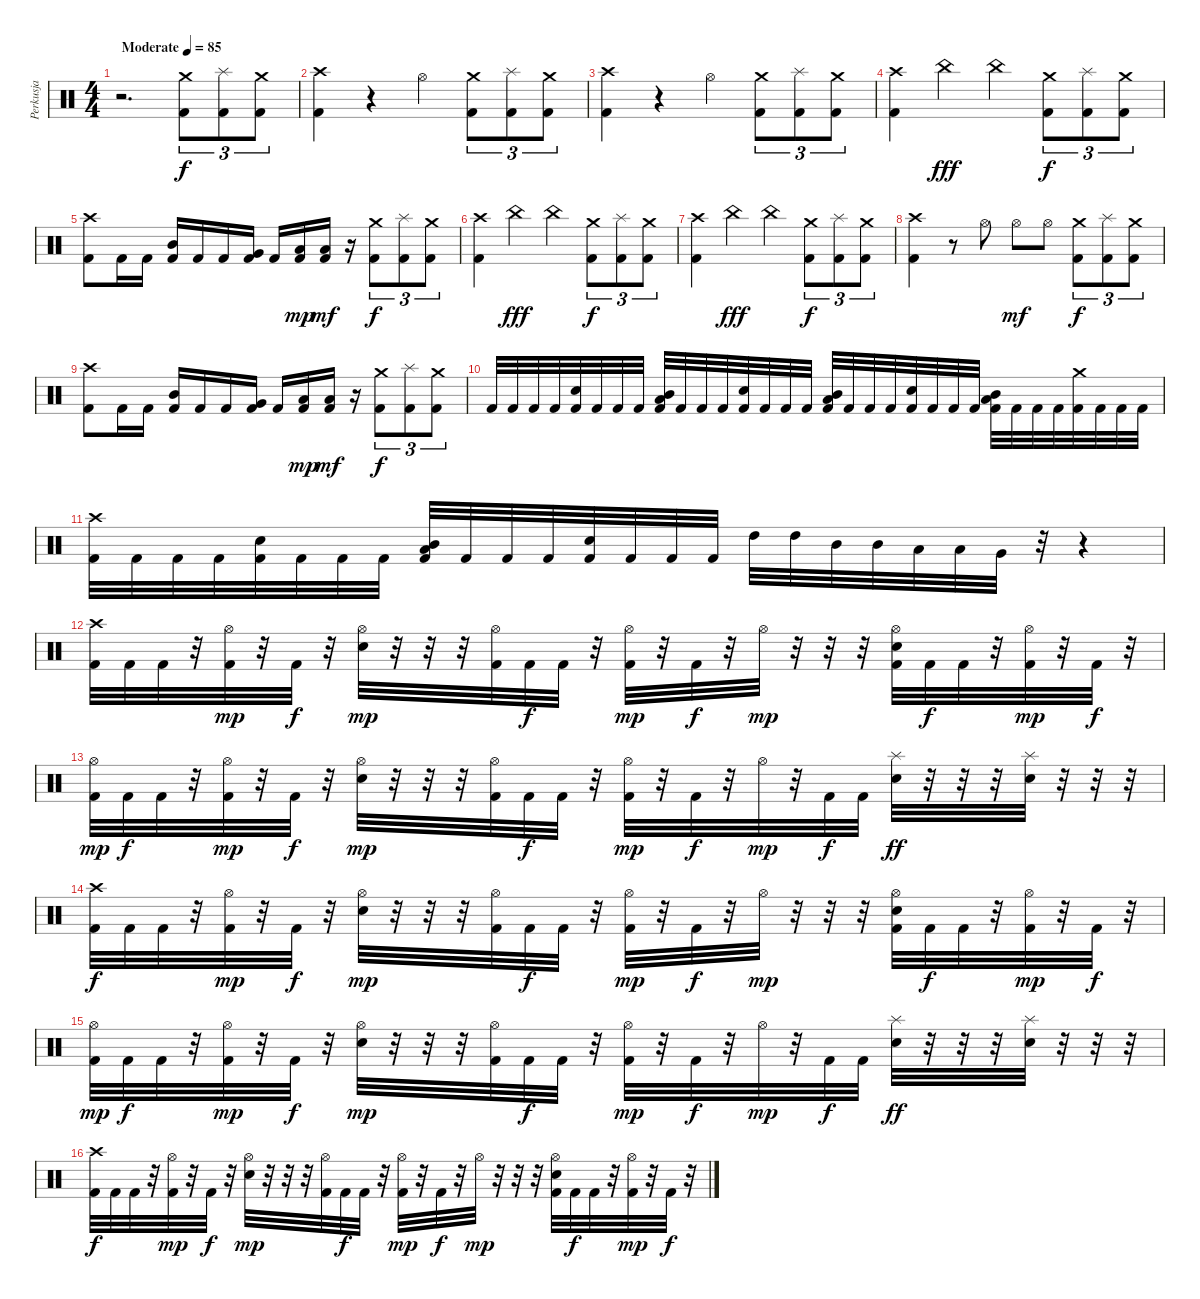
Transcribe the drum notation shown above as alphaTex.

\track ("Perkusja" "Perkusja") {instrument percussion}
\staff {score}
\articulation defaults
\ts (4 4)
\tempo (85 "Moderate")
\clef neutral
\ks c
r.2{d dy f} ("Crash medium (hit)" "Kick (hit) 2").8{tu (3 2)} ("Splash (hit)" "Kick (hit) 2").8{tu (3 2)} ("Crash medium (hit)" "Kick (hit) 2").8{tu (3 2)} |
("Crash high (hit)" "Kick (hit) 2").4 r.4 "Hi-Hat (open)".4 ("Crash medium (hit)" "Kick (hit) 2").8{tu (3 2)} ("Splash (hit)" "Kick (hit) 2").8{tu (3 2)} ("Crash medium (hit)" "Kick (hit) 2").8{tu (3 2)} |
("Crash high (hit)" "Kick (hit) 2").4 r.4 "Hi-Hat (open)".4 ("Crash medium (hit)" "Kick (hit) 2").8{tu (3 2)} ("Splash (hit)" "Kick (hit) 2").8{tu (3 2)} ("Crash medium (hit)" "Kick (hit) 2").8{tu (3 2)} |
("Crash high (hit)" "Kick (hit) 2").4 "China (hit)".4{dy fff} "China (hit)".4 ("Crash medium (hit)" "Kick (hit) 2").8{tu (3 2) dy f} ("Splash (hit)" "Kick (hit) 2").8{tu (3 2)} ("Crash medium (hit)" "Kick (hit) 2").8{tu (3 2)} |
("Crash high (hit)" "Kick (hit) 2").8 "Kick (hit) 2".16 "Kick (hit) 2".16 ("Mid Tom (hit)" "Kick (hit) 2").16 "Kick (hit) 2".16 "Kick (hit) 2".16 ("Very Low Tom (hit)" "Kick (hit) 2").16 "Kick (hit) 2".16 ("Low Floor Tom (hit)" "Kick (hit) 2").16{dy mp} ("Low Floor Tom (hit)" "Kick (hit) 2").16{dy mf} r.16 ("Crash medium (hit)" "Kick (hit) 2").8{tu (3 2) dy f} ("Splash (hit)" "Kick (hit) 2").8{tu (3 2)} ("Crash medium (hit)" "Kick (hit) 2").8{tu (3 2)} |
("Crash high (hit)" "Kick (hit) 2").4 "China (hit)".4{dy fff} "China (hit)".4 ("Crash medium (hit)" "Kick (hit) 2").8{tu (3 2) dy f} ("Splash (hit)" "Kick (hit) 2").8{tu (3 2)} ("Crash medium (hit)" "Kick (hit) 2").8{tu (3 2)} |
("Crash high (hit)" "Kick (hit) 2").4 "China (hit)".4{dy fff} "China (hit)".4 ("Crash medium (hit)" "Kick (hit) 2").8{tu (3 2) dy f} ("Splash (hit)" "Kick (hit) 2").8{tu (3 2)} ("Crash medium (hit)" "Kick (hit) 2").8{tu (3 2)} |
("Crash high (hit)" "Kick (hit) 2").4 r.8 "Hi-Hat (open)".8 "Hi-Hat (open)".8{dy mf} "Hi-Hat (open)".8 ("Crash medium (hit)" "Kick (hit) 2").8{tu (3 2) dy f} ("Splash (hit)" "Kick (hit) 2").8{tu (3 2)} ("Crash medium (hit)" "Kick (hit) 2").8{tu (3 2)} |
("Crash high (hit)" "Kick (hit) 2").8 "Kick (hit) 2".16 "Kick (hit) 2".16 ("Mid Tom (hit)" "Kick (hit) 2").16 "Kick (hit) 2".16 "Kick (hit) 2".16 ("Very Low Tom (hit)" "Kick (hit) 2").16 "Kick (hit) 2".16 ("Low Floor Tom (hit)" "Kick (hit) 2").16{dy mp} ("Low Floor Tom (hit)" "Kick (hit) 2").16{dy mf} r.16 ("Crash medium (hit)" "Kick (hit) 2").8{tu (3 2) dy f} ("Splash (hit)" "Kick (hit) 2").8{tu (3 2)} ("Crash medium (hit)" "Kick (hit) 2").8{tu (3 2)} |
"Kick (hit) 2".32 "Kick (hit) 2".32 "Kick (hit) 2".32 "Kick (hit) 2".32 ("Electric Snare (hit)" "Kick (hit) 2").32 "Kick (hit) 2".32 "Kick (hit) 2".32 "Kick (hit) 2".32 ("Mid Tom (hit)" "Low Tom (hit)" "Kick (hit) 2").32 "Kick (hit) 2".32 "Kick (hit) 2".32 "Kick (hit) 2".32 ("Electric Snare (hit)" "Kick (hit) 2").32 "Kick (hit) 2".32 "Kick (hit) 2".32 "Kick (hit) 2".32 ("Mid Tom (hit)" "Low Tom (hit)" "Kick (hit) 2").32 "Kick (hit) 2".32 "Kick (hit) 2".32 "Kick (hit) 2".32 ("Electric Snare (hit)" "Kick (hit) 2").32 "Kick (hit) 2".32 "Kick (hit) 2".32 "Kick (hit) 2".32 ("Mid Tom (hit)" "Low Tom (hit)" "Kick (hit) 2").32 "Kick (hit) 2".32 "Kick (hit) 2".32 "Kick (hit) 2".32 ("Crash medium (hit)" "Kick (hit) 2").32 "Kick (hit) 2".32 "Kick (hit) 2".32 "Kick (hit) 2".32 |
("Crash high (hit)" "Kick (hit) 2").32 "Kick (hit) 2".32 "Kick (hit) 2".32 "Kick (hit) 2".32 ("Electric Snare (hit)" "Kick (hit) 2").32 "Kick (hit) 2".32 "Kick (hit) 2".32 "Kick (hit) 2".32 ("Mid Tom (hit)" "Low Tom (hit)" "Kick (hit) 2").32 "Kick (hit) 2".32 "Kick (hit) 2".32 "Kick (hit) 2".32 ("Electric Snare (hit)" "Kick (hit) 2").32 "Kick (hit) 2".32 "Kick (hit) 2".32 "Kick (hit) 2".32 "High Tom (hit)".32 "High Tom (hit)".32 "Mid Tom (hit)".32 "Mid Tom (hit)".32 "Low Tom (hit)".32 "Low Tom (hit)".32 "Very Low Tom (hit)".32 r.32 r.4 |
("Crash high (hit)" "Kick (hit) 2").32 "Kick (hit) 2".32 "Kick (hit) 2".32 r.32 ("Hi-Hat (open)" "Kick (hit) 2").32{dy mp} r.32 "Kick (hit) 2".32{dy f} r.32 ("Electric Snare (hit)" "Hi-Hat (open)").32{dy mp} r.32 r.32 r.32 ("Hi-Hat (open)" "Kick (hit) 2").32 "Kick (hit) 2".32{dy f} "Kick (hit) 2".32 r.32 ("Hi-Hat (open)" "Kick (hit) 2").32{dy mp} r.32 "Kick (hit) 2".32{dy f} r.32 "Hi-Hat (open)".32{dy mp} r.32 r.32 r.32 ("Electric Snare (hit)" "Hi-Hat (open)" "Kick (hit) 2").32 "Kick (hit) 2".32{dy f} "Kick (hit) 2".32 r.32 ("Hi-Hat (open)" "Kick (hit) 2").32{dy mp} r.32 "Kick (hit) 2".32{dy f} r.32 |
("Hi-Hat (open)" "Kick (hit) 2").32{dy mp} "Kick (hit) 2".32{dy f} "Kick (hit) 2".32 r.32 ("Hi-Hat (open)" "Kick (hit) 2").32{dy mp} r.32 "Kick (hit) 2".32{dy f} r.32 ("Electric Snare (hit)" "Hi-Hat (open)").32{dy mp} r.32 r.32 r.32 ("Hi-Hat (open)" "Kick (hit) 2").32 "Kick (hit) 2".32{dy f} "Kick (hit) 2".32 r.32 ("Hi-Hat (open)" "Kick (hit) 2").32{dy mp} r.32 "Kick (hit) 2".32{dy f} r.32 "Hi-Hat (open)".32{dy mp} r.32 "Kick (hit) 2".32{dy f} "Kick (hit) 2".32 ("Electric Snare (hit)" "Splash (hit)").32{dy ff} r.32 r.32 r.32 ("Electric Snare (hit)" "Splash (hit)").32 r.32 r.32 r.32 |
("Crash high (hit)" "Kick (hit) 2").32{dy f} "Kick (hit) 2".32 "Kick (hit) 2".32 r.32 ("Hi-Hat (open)" "Kick (hit) 2").32{dy mp} r.32 "Kick (hit) 2".32{dy f} r.32 ("Electric Snare (hit)" "Hi-Hat (open)").32{dy mp} r.32 r.32 r.32 ("Hi-Hat (open)" "Kick (hit) 2").32 "Kick (hit) 2".32{dy f} "Kick (hit) 2".32 r.32 ("Hi-Hat (open)" "Kick (hit) 2").32{dy mp} r.32 "Kick (hit) 2".32{dy f} r.32 "Hi-Hat (open)".32{dy mp} r.32 r.32 r.32 ("Electric Snare (hit)" "Hi-Hat (open)" "Kick (hit) 2").32 "Kick (hit) 2".32{dy f} "Kick (hit) 2".32 r.32 ("Hi-Hat (open)" "Kick (hit) 2").32{dy mp} r.32 "Kick (hit) 2".32{dy f} r.32 |
("Hi-Hat (open)" "Kick (hit) 2").32{dy mp} "Kick (hit) 2".32{dy f} "Kick (hit) 2".32 r.32 ("Hi-Hat (open)" "Kick (hit) 2").32{dy mp} r.32 "Kick (hit) 2".32{dy f} r.32 ("Electric Snare (hit)" "Hi-Hat (open)").32{dy mp} r.32 r.32 r.32 ("Hi-Hat (open)" "Kick (hit) 2").32 "Kick (hit) 2".32{dy f} "Kick (hit) 2".32 r.32 ("Hi-Hat (open)" "Kick (hit) 2").32{dy mp} r.32 "Kick (hit) 2".32{dy f} r.32 "Hi-Hat (open)".32{dy mp} r.32 "Kick (hit) 2".32{dy f} "Kick (hit) 2".32 ("Electric Snare (hit)" "Splash (hit)").32{dy ff} r.32 r.32 r.32 ("Electric Snare (hit)" "Splash (hit)").32 r.32 r.32 r.32 |
("Crash high (hit)" "Kick (hit) 2").32{dy f} "Kick (hit) 2".32 "Kick (hit) 2".32 r.32 ("Hi-Hat (open)" "Kick (hit) 2").32{dy mp} r.32 "Kick (hit) 2".32{dy f} r.32 ("Electric Snare (hit)" "Hi-Hat (open)").32{dy mp} r.32 r.32 r.32 ("Hi-Hat (open)" "Kick (hit) 2").32 "Kick (hit) 2".32{dy f} "Kick (hit) 2".32 r.32 ("Hi-Hat (open)" "Kick (hit) 2").32{dy mp} r.32 "Kick (hit) 2".32{dy f} r.32 "Hi-Hat (open)".32{dy mp} r.32 r.32 r.32 ("Electric Snare (hit)" "Hi-Hat (open)" "Kick (hit) 2").32 "Kick (hit) 2".32{dy f} "Kick (hit) 2".32 r.32 ("Hi-Hat (open)" "Kick (hit) 2").32{dy mp} r.32 "Kick (hit) 2".32{dy f} r.32
